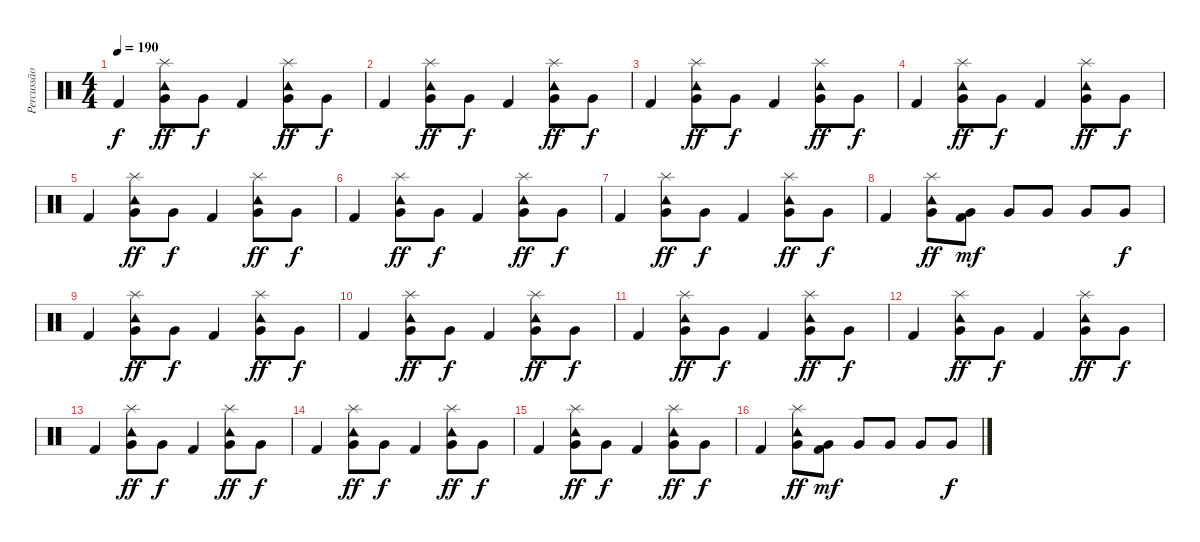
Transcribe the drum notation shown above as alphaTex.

\track ("Percussão" "Percussão") {instrument percussion}
\staff {score}
\articulation defaults
\ts (4 4)
\tempo 190
\clef neutral
\ks c "Kick (hit) 2".4{dy f}
("Splash (hit)" "Tambourine (hit)" "Very Low Tom (hit)").8{dy ff} "Very Low Tom (hit)".8{dy f} "Kick (hit) 2".4 ("Splash (hit)" "Tambourine (hit)" "Very Low Tom (hit)").8{dy ff} "Very Low Tom (hit)".8{dy f} |
"Kick (hit) 2".4 ("Splash (hit)" "Tambourine (hit)" "Very Low Tom (hit)").8{dy ff} "Very Low Tom (hit)".8{dy f} "Kick (hit) 2".4 ("Splash (hit)" "Tambourine (hit)" "Very Low Tom (hit)").8{dy ff} "Very Low Tom (hit)".8{dy f} |
"Kick (hit) 2".4 ("Splash (hit)" "Tambourine (hit)" "Very Low Tom (hit)").8{dy ff} "Very Low Tom (hit)".8{dy f} "Kick (hit) 2".4 ("Splash (hit)" "Tambourine (hit)" "Very Low Tom (hit)").8{dy ff} "Very Low Tom (hit)".8{dy f} |
"Kick (hit) 2".4 ("Splash (hit)" "Tambourine (hit)" "Very Low Tom (hit)").8{dy ff} "Very Low Tom (hit)".8{dy f} "Kick (hit) 2".4 ("Splash (hit)" "Tambourine (hit)" "Very Low Tom (hit)").8{dy ff} "Very Low Tom (hit)".8{dy f} |
"Kick (hit) 2".4 ("Splash (hit)" "Tambourine (hit)" "Very Low Tom (hit)").8{dy ff} "Very Low Tom (hit)".8{dy f} "Kick (hit) 2".4 ("Splash (hit)" "Tambourine (hit)" "Very Low Tom (hit)").8{dy ff} "Very Low Tom (hit)".8{dy f} |
"Kick (hit) 2".4 ("Splash (hit)" "Tambourine (hit)" "Very Low Tom (hit)").8{dy ff} "Very Low Tom (hit)".8{dy f} "Kick (hit) 2".4 ("Splash (hit)" "Tambourine (hit)" "Very Low Tom (hit)").8{dy ff} "Very Low Tom (hit)".8{dy f} |
"Kick (hit) 2".4 ("Splash (hit)" "Tambourine (hit)" "Very Low Tom (hit)").8{dy ff} "Very Low Tom (hit)".8{dy f} "Kick (hit) 2".4 ("Splash (hit)" "Tambourine (hit)" "Very Low Tom (hit)").8{dy ff} "Very Low Tom (hit)".8{dy f} |
"Kick (hit) 2".4 ("Splash (hit)" "Tambourine (hit)" "Very Low Tom (hit)").8{dy ff} ("Very Low Tom (hit)" "Kick (hit) 2").8{dy mf} "Very Low Tom (hit)".8 "Very Low Tom (hit)".8 "Very Low Tom (hit)".8 "Very Low Tom (hit)".8{dy f} |
"Kick (hit) 2".4 ("Splash (hit)" "Tambourine (hit)" "Very Low Tom (hit)").8{dy ff} "Very Low Tom (hit)".8{dy f} "Kick (hit) 2".4 ("Splash (hit)" "Tambourine (hit)" "Very Low Tom (hit)").8{dy ff} "Very Low Tom (hit)".8{dy f} |
"Kick (hit) 2".4 ("Splash (hit)" "Tambourine (hit)" "Very Low Tom (hit)").8{dy ff} "Very Low Tom (hit)".8{dy f} "Kick (hit) 2".4 ("Splash (hit)" "Tambourine (hit)" "Very Low Tom (hit)").8{dy ff} "Very Low Tom (hit)".8{dy f} |
"Kick (hit) 2".4 ("Splash (hit)" "Tambourine (hit)" "Very Low Tom (hit)").8{dy ff} "Very Low Tom (hit)".8{dy f} "Kick (hit) 2".4 ("Splash (hit)" "Tambourine (hit)" "Very Low Tom (hit)").8{dy ff} "Very Low Tom (hit)".8{dy f} |
"Kick (hit) 2".4 ("Splash (hit)" "Tambourine (hit)" "Very Low Tom (hit)").8{dy ff} "Very Low Tom (hit)".8{dy f} "Kick (hit) 2".4 ("Splash (hit)" "Tambourine (hit)" "Very Low Tom (hit)").8{dy ff} "Very Low Tom (hit)".8{dy f} |
"Kick (hit) 2".4 ("Splash (hit)" "Tambourine (hit)" "Very Low Tom (hit)").8{dy ff} "Very Low Tom (hit)".8{dy f} "Kick (hit) 2".4 ("Splash (hit)" "Tambourine (hit)" "Very Low Tom (hit)").8{dy ff} "Very Low Tom (hit)".8{dy f} |
"Kick (hit) 2".4 ("Splash (hit)" "Tambourine (hit)" "Very Low Tom (hit)").8{dy ff} "Very Low Tom (hit)".8{dy f} "Kick (hit) 2".4 ("Splash (hit)" "Tambourine (hit)" "Very Low Tom (hit)").8{dy ff} "Very Low Tom (hit)".8{dy f} |
"Kick (hit) 2".4 ("Splash (hit)" "Tambourine (hit)" "Very Low Tom (hit)").8{dy ff} "Very Low Tom (hit)".8{dy f} "Kick (hit) 2".4 ("Splash (hit)" "Tambourine (hit)" "Very Low Tom (hit)").8{dy ff} "Very Low Tom (hit)".8{dy f} |
"Kick (hit) 2".4 ("Splash (hit)" "Tambourine (hit)" "Very Low Tom (hit)").8{dy ff} ("Very Low Tom (hit)" "Kick (hit) 2").8{dy mf} "Very Low Tom (hit)".8 "Very Low Tom (hit)".8 "Very Low Tom (hit)".8 "Very Low Tom (hit)".8{dy f}
